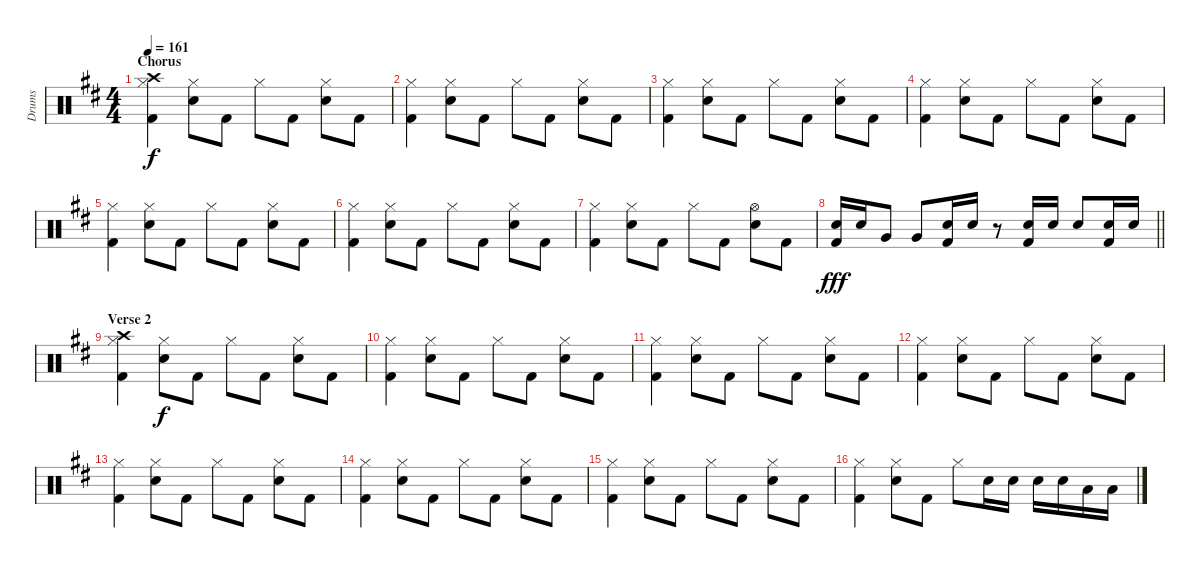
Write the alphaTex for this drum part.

\track ("Drums" "Drums") {instrument percussion}
\staff {score}
\articulation defaults
\ts (4 4)
\section ("" "Chorus")
\tempo 161
\clef neutral
\ks d
("Hi-Hat (closed)" "Crash high (hit)" "Kick (hit) 2").4{dy f} ("Hi-Hat (closed)" "Electric Snare (hit)").8 "Kick (hit) 2".8 "Hi-Hat (closed)".8 "Kick (hit) 2".8 ("Hi-Hat (closed)" "Electric Snare (hit)").8 "Kick (hit) 2".8 |
("Hi-Hat (closed)" "Kick (hit) 2").4 ("Hi-Hat (closed)" "Electric Snare (hit)").8 "Kick (hit) 2".8 "Hi-Hat (closed)".8 "Kick (hit) 2".8 ("Hi-Hat (closed)" "Electric Snare (hit)").8 "Kick (hit) 2".8 |
("Hi-Hat (closed)" "Kick (hit) 2").4 ("Hi-Hat (closed)" "Electric Snare (hit)").8 "Kick (hit) 2".8 "Hi-Hat (closed)".8 "Kick (hit) 2".8 ("Hi-Hat (closed)" "Electric Snare (hit)").8 "Kick (hit) 2".8 |
("Hi-Hat (closed)" "Kick (hit) 2").4 ("Hi-Hat (closed)" "Electric Snare (hit)").8 "Kick (hit) 2".8 "Hi-Hat (closed)".8 "Kick (hit) 2".8 ("Hi-Hat (closed)" "Electric Snare (hit)").8 "Kick (hit) 2".8 |
("Hi-Hat (closed)" "Kick (hit) 2").4 ("Hi-Hat (closed)" "Electric Snare (hit)").8 "Kick (hit) 2".8 "Hi-Hat (closed)".8 "Kick (hit) 2".8 ("Hi-Hat (closed)" "Electric Snare (hit)").8 "Kick (hit) 2".8 |
("Hi-Hat (closed)" "Kick (hit) 2").4 ("Hi-Hat (closed)" "Electric Snare (hit)").8 "Kick (hit) 2".8 "Hi-Hat (closed)".8 "Kick (hit) 2".8 ("Hi-Hat (closed)" "Electric Snare (hit)").8 "Kick (hit) 2".8 |
("Hi-Hat (closed)" "Kick (hit) 2").4 ("Hi-Hat (closed)" "Electric Snare (hit)").8 "Kick (hit) 2".8 "Hi-Hat (closed)".8 "Kick (hit) 2".8 ("Hi-Hat (open)" "Electric Snare (hit)").8 "Kick (hit) 2".8 |
\barLineRight lightlight
("Electric Snare (hit)" "Kick (hit) 2").16{dy fff} "Electric Snare (hit)".16 "Very Low Tom (hit)".8 "Very Low Tom (hit)".8 ("Electric Snare (hit)" "Kick (hit) 2").16 "Electric Snare (hit)".16 r.8 ("Electric Snare (hit)" "Kick (hit) 2").16 "Electric Snare (hit)".16 "Electric Snare (hit)".8 ("Electric Snare (hit)" "Kick (hit) 2").16 "Electric Snare (hit)".16 |
\section ("" "Verse 2")
("Hi-Hat (closed)" "Crash high (hit)" "Kick (hit) 2").4 ("Hi-Hat (closed)" "Electric Snare (hit)").8{dy f} "Kick (hit) 2".8 "Hi-Hat (closed)".8 "Kick (hit) 2".8 ("Hi-Hat (closed)" "Electric Snare (hit)").8 "Kick (hit) 2".8 |
("Hi-Hat (closed)" "Kick (hit) 2").4 ("Hi-Hat (closed)" "Electric Snare (hit)").8 "Kick (hit) 2".8 "Hi-Hat (closed)".8 "Kick (hit) 2".8 ("Hi-Hat (closed)" "Electric Snare (hit)").8 "Kick (hit) 2".8 |
("Hi-Hat (closed)" "Kick (hit) 2").4 ("Hi-Hat (closed)" "Electric Snare (hit)").8 "Kick (hit) 2".8 "Hi-Hat (closed)".8 "Kick (hit) 2".8 ("Hi-Hat (closed)" "Electric Snare (hit)").8 "Kick (hit) 2".8 |
("Hi-Hat (closed)" "Kick (hit) 2").4 ("Hi-Hat (closed)" "Electric Snare (hit)").8 "Kick (hit) 2".8 "Hi-Hat (closed)".8 "Kick (hit) 2".8 ("Hi-Hat (closed)" "Electric Snare (hit)").8 "Kick (hit) 2".8 |
("Hi-Hat (closed)" "Kick (hit) 2").4 ("Hi-Hat (closed)" "Electric Snare (hit)").8 "Kick (hit) 2".8 "Hi-Hat (closed)".8 "Kick (hit) 2".8 ("Hi-Hat (closed)" "Electric Snare (hit)").8 "Kick (hit) 2".8 |
("Hi-Hat (closed)" "Kick (hit) 2").4 ("Hi-Hat (closed)" "Electric Snare (hit)").8 "Kick (hit) 2".8 "Hi-Hat (closed)".8 "Kick (hit) 2".8 ("Hi-Hat (closed)" "Electric Snare (hit)").8 "Kick (hit) 2".8 |
("Hi-Hat (closed)" "Kick (hit) 2").4 ("Hi-Hat (closed)" "Electric Snare (hit)").8 "Kick (hit) 2".8 "Hi-Hat (closed)".8 "Kick (hit) 2".8 ("Hi-Hat (closed)" "Electric Snare (hit)").8 "Kick (hit) 2".8 |
("Hi-Hat (closed)" "Kick (hit) 2").4 ("Hi-Hat (closed)" "Electric Snare (hit)").8 "Kick (hit) 2".8 "Hi-Hat (closed)".8 "Electric Snare (hit)".16 "Electric Snare (hit)".16 "Electric Snare (hit)".16 "Electric Snare (hit)".16 "Low Tom (hit)".16 "Low Tom (hit)".16
